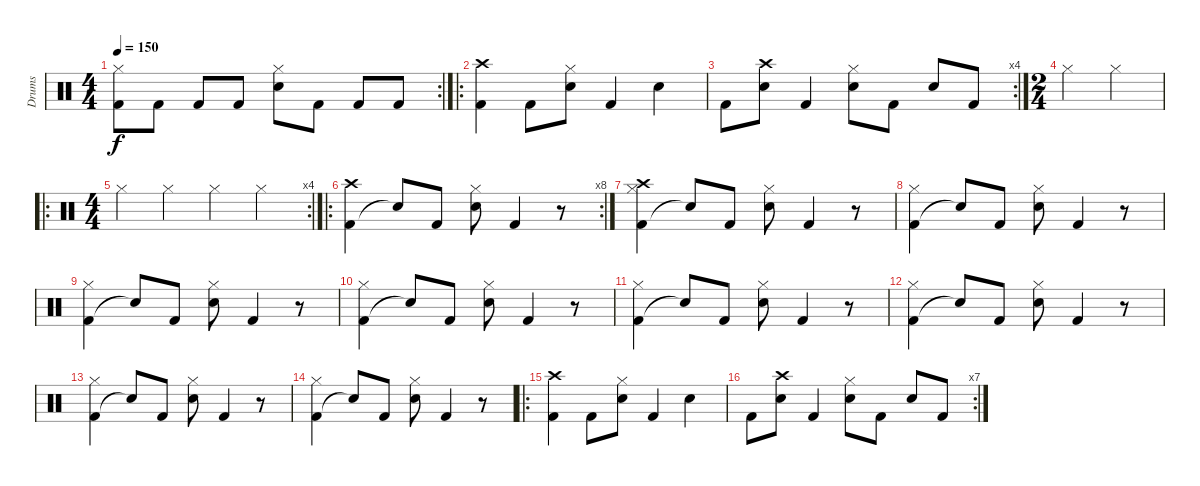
\track ("Drums" "Drums") {instrument percussion}
\staff {score}
\articulation defaults
\rc 2
\ts (4 4)
\tempo 150
\clef neutral
\ks c
("Kick (hit) 2" "Hi-Hat (closed)").8{dy f} "Kick (hit) 2".8 "Kick (hit) 2".8 "Kick (hit) 2".8 ("Electric Snare (hit)" "Hi-Hat (closed)").8 "Kick (hit) 2".8 "Kick (hit) 2".8 "Kick (hit) 2".8 |
\ro
("Kick (hit) 2" "Crash high (hit)").4 "Kick (hit) 2".8 ("Electric Snare (hit)" "Hi-Hat (closed)").8 "Kick (hit) 2".4 "Electric Snare (hit)".4 |
\rc 4 "Kick (hit) 2".8
("Electric Snare (hit)" "Crash high (hit)").8 "Kick (hit) 2".4 ("Electric Snare (hit)" "Hi-Hat (closed)").8 "Kick (hit) 2".8 "Electric Snare (hit)".8 "Kick (hit) 2".8 |
\ts (2 4)
"Hi-Hat (closed)".4 "Hi-Hat (closed)".4 |
\ro
\rc 4
\ts (4 4)
"Hi-Hat (closed)".4 "Hi-Hat (closed)".4 "Hi-Hat (closed)".4 "Hi-Hat (closed)".4 |
\ro
\rc 8
("Kick (hit) 2" "Crash high (hit)").4 "Snare (hit)"{t}.8 "Kick (hit) 2".8 ("Electric Snare (hit)" "Hi-Hat (closed)").8 "Kick (hit) 2".4 r.8 |
("Kick (hit) 2" "Crash high (hit)" "Hi-Hat (closed)").4 "Snare (hit)"{t}.8 "Kick (hit) 2".8 ("Electric Snare (hit)" "Hi-Hat (closed)").8 "Kick (hit) 2".4 r.8 |
("Kick (hit) 2" "Hi-Hat (closed)").4 "Snare (hit)"{t}.8 "Kick (hit) 2".8 ("Electric Snare (hit)" "Hi-Hat (closed)").8 "Kick (hit) 2".4 r.8 |
("Kick (hit) 2" "Hi-Hat (closed)").4 "Snare (hit)"{t}.8 "Kick (hit) 2".8 ("Electric Snare (hit)" "Hi-Hat (closed)").8 "Kick (hit) 2".4 r.8 |
("Kick (hit) 2" "Hi-Hat (closed)").4 "Snare (hit)"{t}.8 "Kick (hit) 2".8 ("Electric Snare (hit)" "Hi-Hat (closed)").8 "Kick (hit) 2".4 r.8 |
("Kick (hit) 2" "Hi-Hat (closed)").4 "Snare (hit)"{t}.8 "Kick (hit) 2".8 ("Electric Snare (hit)" "Hi-Hat (closed)").8 "Kick (hit) 2".4 r.8 |
("Kick (hit) 2" "Hi-Hat (closed)").4 "Snare (hit)"{t}.8 "Kick (hit) 2".8 ("Electric Snare (hit)" "Hi-Hat (closed)").8 "Kick (hit) 2".4 r.8 |
("Kick (hit) 2" "Hi-Hat (closed)").4 "Snare (hit)"{t}.8 "Kick (hit) 2".8 ("Electric Snare (hit)" "Hi-Hat (closed)").8 "Kick (hit) 2".4 r.8 |
("Kick (hit) 2" "Hi-Hat (closed)").4 "Snare (hit)"{t}.8 "Kick (hit) 2".8 ("Electric Snare (hit)" "Hi-Hat (closed)").8 "Kick (hit) 2".4 r.8 |
\ro
("Kick (hit) 2" "Crash high (hit)").4 "Kick (hit) 2".8 ("Electric Snare (hit)" "Hi-Hat (closed)").8 "Kick (hit) 2".4 "Electric Snare (hit)".4 |
\rc 7 "Kick (hit) 2".8
("Electric Snare (hit)" "Crash high (hit)").8 "Kick (hit) 2".4 ("Electric Snare (hit)" "Hi-Hat (closed)").8 "Kick (hit) 2".8 "Electric Snare (hit)".8 "Kick (hit) 2".8
